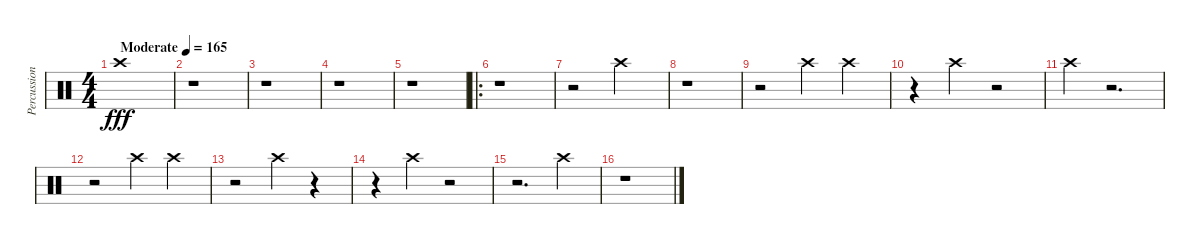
\track ("Percussion" "Percussion") {instrument percussion}
\staff {score}
\articulation defaults
\ts (4 4)
\tempo (165 "Moderate")
\clef neutral
\ks c "Crash high (hit)".1{dy fff}
|
r.1 |
r.1 |
r.1 |
r.1 |
\ro
r.1 |
r.2 "Crash high (hit)".2 |
r.1 |
r.2 "Crash high (hit)".4 "Crash high (hit)".4 |
r.4 "Crash high (hit)".4 r.2 |
"Crash high (hit)".4 r.2{d} |
r.2 "Crash high (hit)".4 "Crash high (hit)".4 |
r.2 "Crash high (hit)".4 r.4 |
r.4 "Crash high (hit)".4 r.2 |
r.2{d} "Crash high (hit)".4 |
r.1
